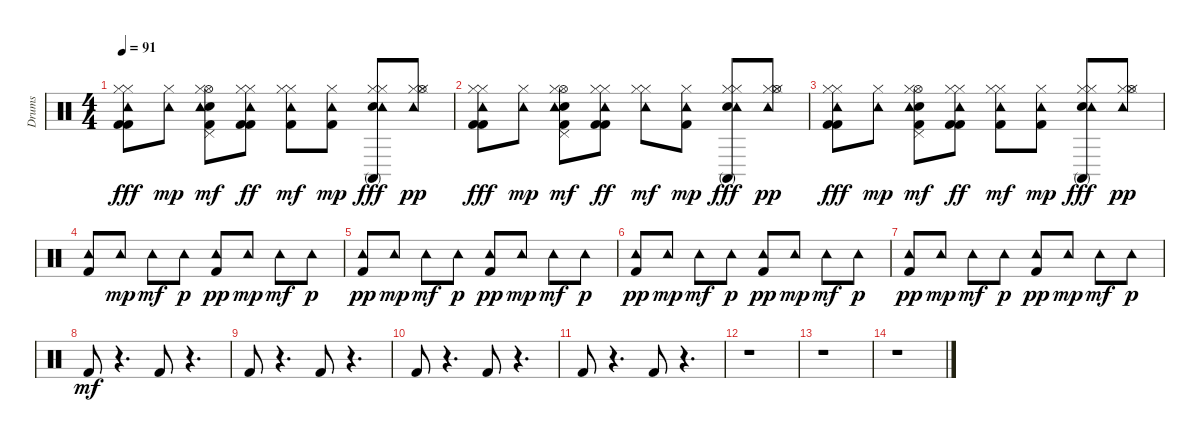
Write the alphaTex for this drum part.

\track ("Drums" "Drums") {instrument percussion}
\staff {score}
\articulation defaults
\ts (4 4)
\tempo 91
\clef neutral
\ks c
("Hi-Hat (closed)" "Kick (hit) 2" "Hi-Hat (closed)" "Tambourine (hit)" "Kick (hit) 2").8{dy fff} ("Hi-Hat (closed)" "Tambourine (hit)").8{dy mp} ("Kick (hit) 2" "Pedal Hi-Hat (hit)" "Hi-Hat (open)" "Snare (hit) 2" "Hi-Hat (closed)" "Tambourine (hit)").8{dy mf} ("Hi-Hat (closed)" "Kick (hit) 2" "Hi-Hat (closed)" "Tambourine (hit)" "Kick (hit) 2").8{dy ff} ("Hi-Hat (closed)" "Kick (hit) 2" "Hi-Hat (closed)" "Tambourine (hit)").8{dy mf} ("Kick (hit) 2" "Hi-Hat (closed)" "Tambourine (hit)").8{dy mp} ("Hi-Hat (closed)" "Snare (hit) 2" "Hi-Hat (closed)" "Tambourine (hit)" "Conga high (mute)").8{dy fff} ("Hi-Hat (closed)" "Hi-Hat (closed)" "Hi-Hat (open)" "Tambourine (hit)").8{dy pp} |
("Hi-Hat (closed)" "Kick (hit) 2" "Hi-Hat (closed)" "Tambourine (hit)" "Kick (hit) 2").8{dy fff} ("Hi-Hat (closed)" "Tambourine (hit)").8{dy mp} ("Kick (hit) 2" "Pedal Hi-Hat (hit)" "Hi-Hat (open)" "Snare (hit) 2" "Hi-Hat (closed)" "Tambourine (hit)").8{dy mf} ("Hi-Hat (closed)" "Kick (hit) 2" "Hi-Hat (closed)" "Tambourine (hit)" "Kick (hit) 2").8{dy ff} ("Hi-Hat (closed)" "Hi-Hat (closed)" "Tambourine (hit)").8{dy mf} ("Kick (hit) 2" "Hi-Hat (closed)" "Tambourine (hit)").8{dy mp} ("Hi-Hat (closed)" "Snare (hit) 2" "Hi-Hat (closed)" "Tambourine (hit)" "Conga high (mute)").8{dy fff} ("Hi-Hat (closed)" "Hi-Hat (closed)" "Hi-Hat (open)" "Tambourine (hit)").8{dy pp} |
("Hi-Hat (closed)" "Kick (hit) 2" "Hi-Hat (closed)" "Tambourine (hit)" "Kick (hit) 2").8{dy fff} ("Hi-Hat (closed)" "Tambourine (hit)").8{dy mp} ("Kick (hit) 2" "Pedal Hi-Hat (hit)" "Hi-Hat (open)" "Snare (hit) 2" "Hi-Hat (closed)" "Tambourine (hit)").8{dy mf} ("Hi-Hat (closed)" "Kick (hit) 2" "Hi-Hat (closed)" "Tambourine (hit)" "Kick (hit) 2").8{dy ff} ("Hi-Hat (closed)" "Kick (hit) 2" "Hi-Hat (closed)" "Tambourine (hit)").8{dy mf} ("Kick (hit) 2" "Hi-Hat (closed)" "Tambourine (hit)").8{dy mp} ("Hi-Hat (closed)" "Snare (hit) 2" "Hi-Hat (closed)" "Tambourine (hit)" "Conga high (mute)").8{dy fff} ("Hi-Hat (closed)" "Hi-Hat (closed)" "Hi-Hat (open)" "Tambourine (hit)").8{dy pp} |
("Tambourine (hit)" "Kick (hit) 2").8 "Tambourine (hit)".8{dy mp} "Tambourine (hit)".8{dy mf} "Tambourine (hit)".8{dy p} ("Tambourine (hit)" "Kick (hit) 2").8{dy pp} "Tambourine (hit)".8{dy mp} "Tambourine (hit)".8{dy mf} "Tambourine (hit)".8{dy p} |
("Tambourine (hit)" "Kick (hit) 2").8{dy pp} "Tambourine (hit)".8{dy mp} "Tambourine (hit)".8{dy mf} "Tambourine (hit)".8{dy p} ("Tambourine (hit)" "Kick (hit) 2").8{dy pp} "Tambourine (hit)".8{dy mp} "Tambourine (hit)".8{dy mf} "Tambourine (hit)".8{dy p} |
("Tambourine (hit)" "Kick (hit) 2").8{dy pp} "Tambourine (hit)".8{dy mp} "Tambourine (hit)".8{dy mf} "Tambourine (hit)".8{dy p} ("Tambourine (hit)" "Kick (hit) 2").8{dy pp} "Tambourine (hit)".8{dy mp} "Tambourine (hit)".8{dy mf} "Tambourine (hit)".8{dy p} |
("Tambourine (hit)" "Kick (hit) 2").8{dy pp} "Tambourine (hit)".8{dy mp} "Tambourine (hit)".8{dy mf} "Tambourine (hit)".8{dy p} ("Tambourine (hit)" "Kick (hit) 2").8{dy pp} "Tambourine (hit)".8{dy mp} "Tambourine (hit)".8{dy mf} "Tambourine (hit)".8{dy p} |
"Kick (hit) 2".8{dy mf} r.4{d} "Kick (hit) 2".8 r.4{d} |
"Kick (hit) 2".8 r.4{d} "Kick (hit) 2".8 r.4{d} |
"Kick (hit) 2".8 r.4{d} "Kick (hit) 2".8 r.4{d} |
"Kick (hit) 2".8 r.4{d} "Kick (hit) 2".8 r.4{d} |
r.1 |
r.1 |
r.1
